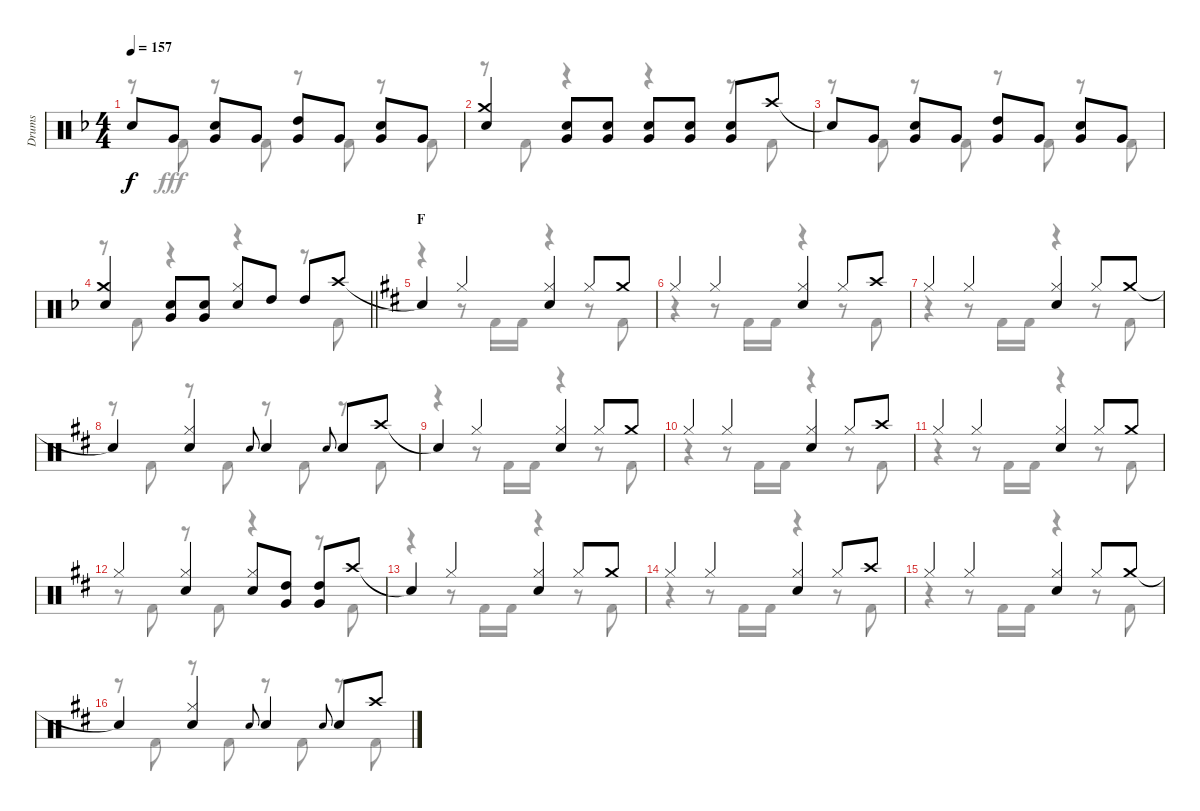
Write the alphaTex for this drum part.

\track ("Drums" "Drums") {instrument percussion}
\staff {score}
\articulation defaults
\voice
\ts (4 4)
\tempo 157
\clef neutral
\ks f "Snare (hit)"{t}.8{dy f} "Very Low Tom (hit)".8
("Snare (hit) 2" "Very Low Tom (hit)").8 "Very Low Tom (hit)".8 ("High Tom (hit)" "Very Low Tom (hit)").8 "Very Low Tom (hit)".8 ("Snare (hit) 2" "Very Low Tom (hit)").8 "Very Low Tom (hit)".8 |
("Crash medium (hit)" "Snare (hit) 2").4 ("Snare (hit) 2" "Very Low Tom (hit)").8 ("Snare (hit) 2" "Very Low Tom (hit)").8 ("Snare (hit) 2" "Very Low Tom (hit)").8 ("Snare (hit) 2" "Very Low Tom (hit)").8 ("Snare (hit) 2" "Very Low Tom (hit)").8 "Crash high (hit)".8 |
"Snare (hit)"{t}.8 "Very Low Tom (hit)".8 ("Snare (hit) 2" "Very Low Tom (hit)").8 "Very Low Tom (hit)".8 ("High Tom (hit)" "Very Low Tom (hit)").8 "Very Low Tom (hit)".8 ("Snare (hit) 2" "Very Low Tom (hit)").8 "Very Low Tom (hit)".8 |
\barLineRight lightlight
("Crash medium (hit)" "Snare (hit) 2").4 ("Snare (hit) 2" "Very Low Tom (hit)").8 ("Snare (hit) 2" "Very Low Tom (hit)").8 ("Hi-Hat (closed)" "Snare (hit) 2").8 "High Tom (hit)".8 "High Tom (hit)".8 "Crash high (hit)".8 |
\section ("" "F")
\ks d "Snare (hit)"{t}.4 "Hi-Hat (closed)".4
("Hi-Hat (closed)" "Snare (hit) 2").4 "Hi-Hat (closed)".8 "Crash medium (hit)".8 |
"Hi-Hat (closed)".4 "Hi-Hat (closed)".4 ("Hi-Hat (closed)" "Snare (hit) 2").4 "Hi-Hat (closed)".8 "Crash high (hit)".8 |
"Hi-Hat (closed)".4 "Hi-Hat (closed)".4 ("Hi-Hat (closed)" "Snare (hit) 2").4 "Hi-Hat (closed)".8 "Crash medium (hit)".8 |
"Snare (hit)"{t}.4 ("Hi-Hat (closed)" "Snare (hit) 2").4 "Snare (hit) 2".8{gr onbeat} "Snare (hit) 2".4 "Snare (hit) 2".8{gr onbeat} "Snare (hit) 2".8 "Crash high (hit)".8 |
"Snare (hit)"{t}.4 "Hi-Hat (closed)".4 ("Hi-Hat (closed)" "Snare (hit) 2").4 "Hi-Hat (closed)".8 "Crash medium (hit)".8 |
"Hi-Hat (closed)".4 "Hi-Hat (closed)".4 ("Hi-Hat (closed)" "Snare (hit) 2").4 "Hi-Hat (closed)".8 "Crash high (hit)".8 |
"Hi-Hat (closed)".4 "Hi-Hat (closed)".4 ("Hi-Hat (closed)" "Snare (hit) 2").4 "Hi-Hat (closed)".8 "Crash medium (hit)".8 |
"Hi-Hat (closed)".4 ("Hi-Hat (closed)" "Snare (hit) 2").4 ("Hi-Hat (closed)" "Snare (hit) 2").8 ("High Tom (hit)" "Very Low Tom (hit)").8 ("High Tom (hit)" "Very Low Tom (hit)").8 "Crash high (hit)".8 |
"Snare (hit)"{t}.4 "Hi-Hat (closed)".4 ("Hi-Hat (closed)" "Snare (hit) 2").4 "Hi-Hat (closed)".8 "Crash medium (hit)".8 |
"Hi-Hat (closed)".4 "Hi-Hat (closed)".4 ("Hi-Hat (closed)" "Snare (hit) 2").4 "Hi-Hat (closed)".8 "Crash high (hit)".8 |
"Hi-Hat (closed)".4 "Hi-Hat (closed)".4 ("Hi-Hat (closed)" "Snare (hit) 2").4 "Hi-Hat (closed)".8 "Crash medium (hit)".8 |
"Snare (hit)"{t}.4 ("Hi-Hat (closed)" "Snare (hit) 2").4 "Snare (hit) 2".8{gr onbeat} "Snare (hit) 2".4 "Snare (hit) 2".8{gr onbeat} "Snare (hit) 2".8 "Crash high (hit)".8
\voice
\clef neutral
\ottava regular
\simile none
\ks f
r.8{dy fff} "Kick (hit) 2".8 r.8 "Kick (hit) 2".8 r.8 "Kick (hit) 2".8 r.8 "Kick (hit) 2".8 |
r.8 "Kick (hit) 2".8 r.4 r.4 r.8 "Kick (hit) 2".8 |
r.8 "Kick (hit) 2".8 r.8 "Kick (hit) 2".8 r.8 "Kick (hit) 2".8 r.8 "Kick (hit) 2".8 |
\barLineRight lightlight
r.8 "Kick (hit) 2".8 r.4 r.4 r.8 "Kick (hit) 2".8 |
\ks d
r.4 r.8 "Kick (hit) 2".16 "Kick (hit) 2".16 r.4 r.8 "Kick (hit) 2".8 |
r.4 r.8 "Kick (hit) 2".16 "Kick (hit) 2".16 r.4 r.8 "Kick (hit) 2".8 |
r.4 r.8 "Kick (hit) 2".16 "Kick (hit) 2".16 r.4 r.8 "Kick (hit) 2".8 |
r.8 "Kick (hit) 2".8 r.8 "Kick (hit) 2".8 r.8 "Kick (hit) 2".8 r.8 "Kick (hit) 2".8 |
r.4 r.8 "Kick (hit) 2".16 "Kick (hit) 2".16 r.4 r.8 "Kick (hit) 2".8 |
r.4 r.8 "Kick (hit) 2".16 "Kick (hit) 2".16 r.4 r.8 "Kick (hit) 2".8 |
r.4 r.8 "Kick (hit) 2".16 "Kick (hit) 2".16 r.4 r.8 "Kick (hit) 2".8 |
r.8 "Kick (hit) 2".8 r.8 "Kick (hit) 2".8 r.4 r.8 "Kick (hit) 2".8 |
r.4 r.8 "Kick (hit) 2".16 "Kick (hit) 2".16 r.4 r.8 "Kick (hit) 2".8 |
r.4 r.8 "Kick (hit) 2".16 "Kick (hit) 2".16 r.4 r.8 "Kick (hit) 2".8 |
r.4 r.8 "Kick (hit) 2".16 "Kick (hit) 2".16 r.4 r.8 "Kick (hit) 2".8 |
r.8 "Kick (hit) 2".8 r.8 "Kick (hit) 2".8 r.8 "Kick (hit) 2".8 r.8 "Kick (hit) 2".8
